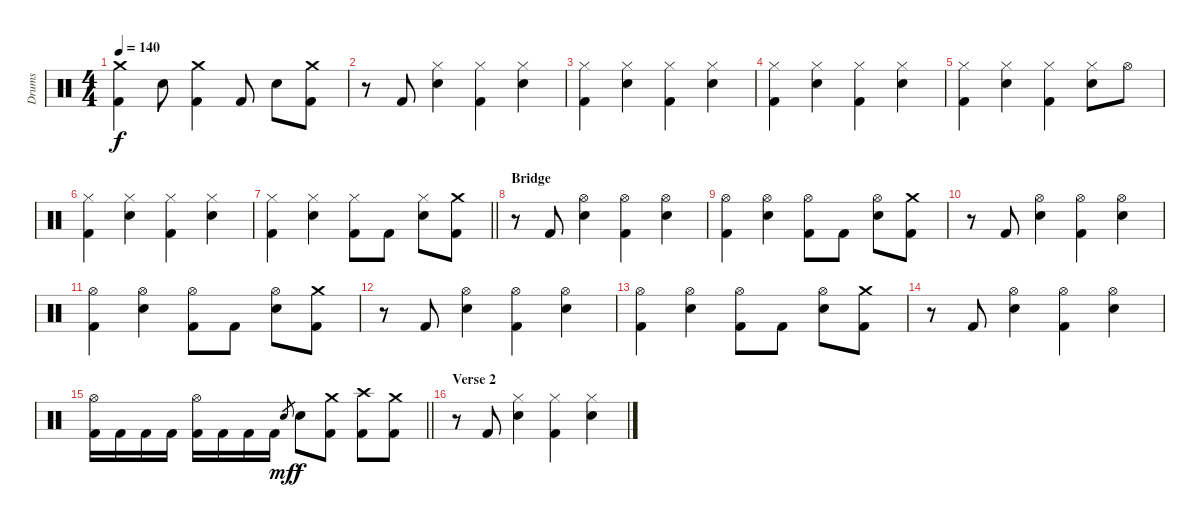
\track ("Drums" "Drums") {instrument percussion}
\staff {score}
\articulation defaults
\ts (4 4)
\tempo 140
\clef neutral
\ks c
("Crash medium (hit)" "Kick (hit) 2").4{dy f} "Snare (hit) 2".8 ("Crash medium (hit)" "Kick (hit) 2").4 "Kick (hit) 2".8 "Snare (hit) 2".8 ("Crash medium (hit)" "Kick (hit) 2").8 |
r.8 "Kick (hit) 2".8 ("Hi-Hat (closed)" "Snare (hit) 2").4 ("Hi-Hat (closed)" "Kick (hit) 2").4 ("Hi-Hat (closed)" "Snare (hit) 2").4 |
("Hi-Hat (closed)" "Kick (hit) 2").4 ("Hi-Hat (closed)" "Snare (hit) 2").4 ("Hi-Hat (closed)" "Kick (hit) 2").4 ("Hi-Hat (closed)" "Snare (hit) 2").4 |
("Hi-Hat (closed)" "Kick (hit) 2").4 ("Hi-Hat (closed)" "Snare (hit) 2").4 ("Hi-Hat (closed)" "Kick (hit) 2").4 ("Hi-Hat (closed)" "Snare (hit) 2").4 |
("Hi-Hat (closed)" "Kick (hit) 2").4 ("Hi-Hat (closed)" "Snare (hit) 2").4 ("Hi-Hat (closed)" "Kick (hit) 2").4 ("Hi-Hat (closed)" "Snare (hit) 2").8 "Hi-Hat (open)".8 |
("Hi-Hat (closed)" "Kick (hit) 2").4 ("Hi-Hat (closed)" "Snare (hit) 2").4 ("Hi-Hat (closed)" "Kick (hit) 2").4 ("Hi-Hat (closed)" "Snare (hit) 2").4 |
\barLineRight lightlight
("Hi-Hat (closed)" "Kick (hit) 2").4 ("Hi-Hat (closed)" "Snare (hit) 2").4 ("Hi-Hat (closed)" "Kick (hit) 2").8 "Kick (hit) 2".8 ("Hi-Hat (closed)" "Snare (hit) 2").8 ("Crash medium (hit)" "Kick (hit) 2").8 |
\section ("" "Bridge")
r.8 "Kick (hit) 2".8 ("Hi-Hat (open)" "Snare (hit) 2").4 ("Hi-Hat (open)" "Kick (hit) 2").4 ("Hi-Hat (open)" "Snare (hit) 2").4 |
("Hi-Hat (open)" "Kick (hit) 2").4 ("Hi-Hat (open)" "Snare (hit) 2").4 ("Hi-Hat (open)" "Kick (hit) 2").8 "Kick (hit) 2".8 ("Hi-Hat (open)" "Snare (hit) 2").8 ("Crash medium (hit)" "Kick (hit) 2").8 |
r.8 "Kick (hit) 2".8 ("Hi-Hat (open)" "Snare (hit) 2").4 ("Hi-Hat (open)" "Kick (hit) 2").4 ("Hi-Hat (open)" "Snare (hit) 2").4 |
("Hi-Hat (open)" "Kick (hit) 2").4 ("Hi-Hat (open)" "Snare (hit) 2").4 ("Hi-Hat (open)" "Kick (hit) 2").8 "Kick (hit) 2".8 ("Hi-Hat (open)" "Snare (hit) 2").8 ("Crash medium (hit)" "Kick (hit) 2").8 |
r.8 "Kick (hit) 2".8 ("Hi-Hat (open)" "Snare (hit) 2").4 ("Hi-Hat (open)" "Kick (hit) 2").4 ("Hi-Hat (open)" "Snare (hit) 2").4 |
("Hi-Hat (open)" "Kick (hit) 2").4 ("Hi-Hat (open)" "Snare (hit) 2").4 ("Hi-Hat (open)" "Kick (hit) 2").8 "Kick (hit) 2".8 ("Hi-Hat (open)" "Snare (hit) 2").8 ("Crash medium (hit)" "Kick (hit) 2").8 |
r.8 "Kick (hit) 2".8 ("Hi-Hat (open)" "Snare (hit) 2").4 ("Hi-Hat (open)" "Kick (hit) 2").4 ("Hi-Hat (open)" "Snare (hit) 2").4 |
\barLineRight lightlight
("Hi-Hat (open)" "Kick (hit) 2").16 "Kick (hit) 2".16 "Kick (hit) 2".16 "Kick (hit) 2".16 ("Hi-Hat (open)" "Kick (hit) 2").16 "Kick (hit) 2".16 "Kick (hit) 2".16 "Kick (hit) 2".16 "Snare (hit) 2".8{gr dy mf} "Snare (hit) 2".8{dy f} ("Crash medium (hit)" "Kick (hit) 2").8 ("Crash high (hit)" "Kick (hit) 2").8 ("Crash medium (hit)" "Kick (hit) 2").8 |
\section ("" "Verse 2")
r.8 "Kick (hit) 2".8 ("Hi-Hat (closed)" "Snare (hit) 2").4 ("Hi-Hat (closed)" "Kick (hit) 2").4 ("Hi-Hat (closed)" "Snare (hit) 2").4
